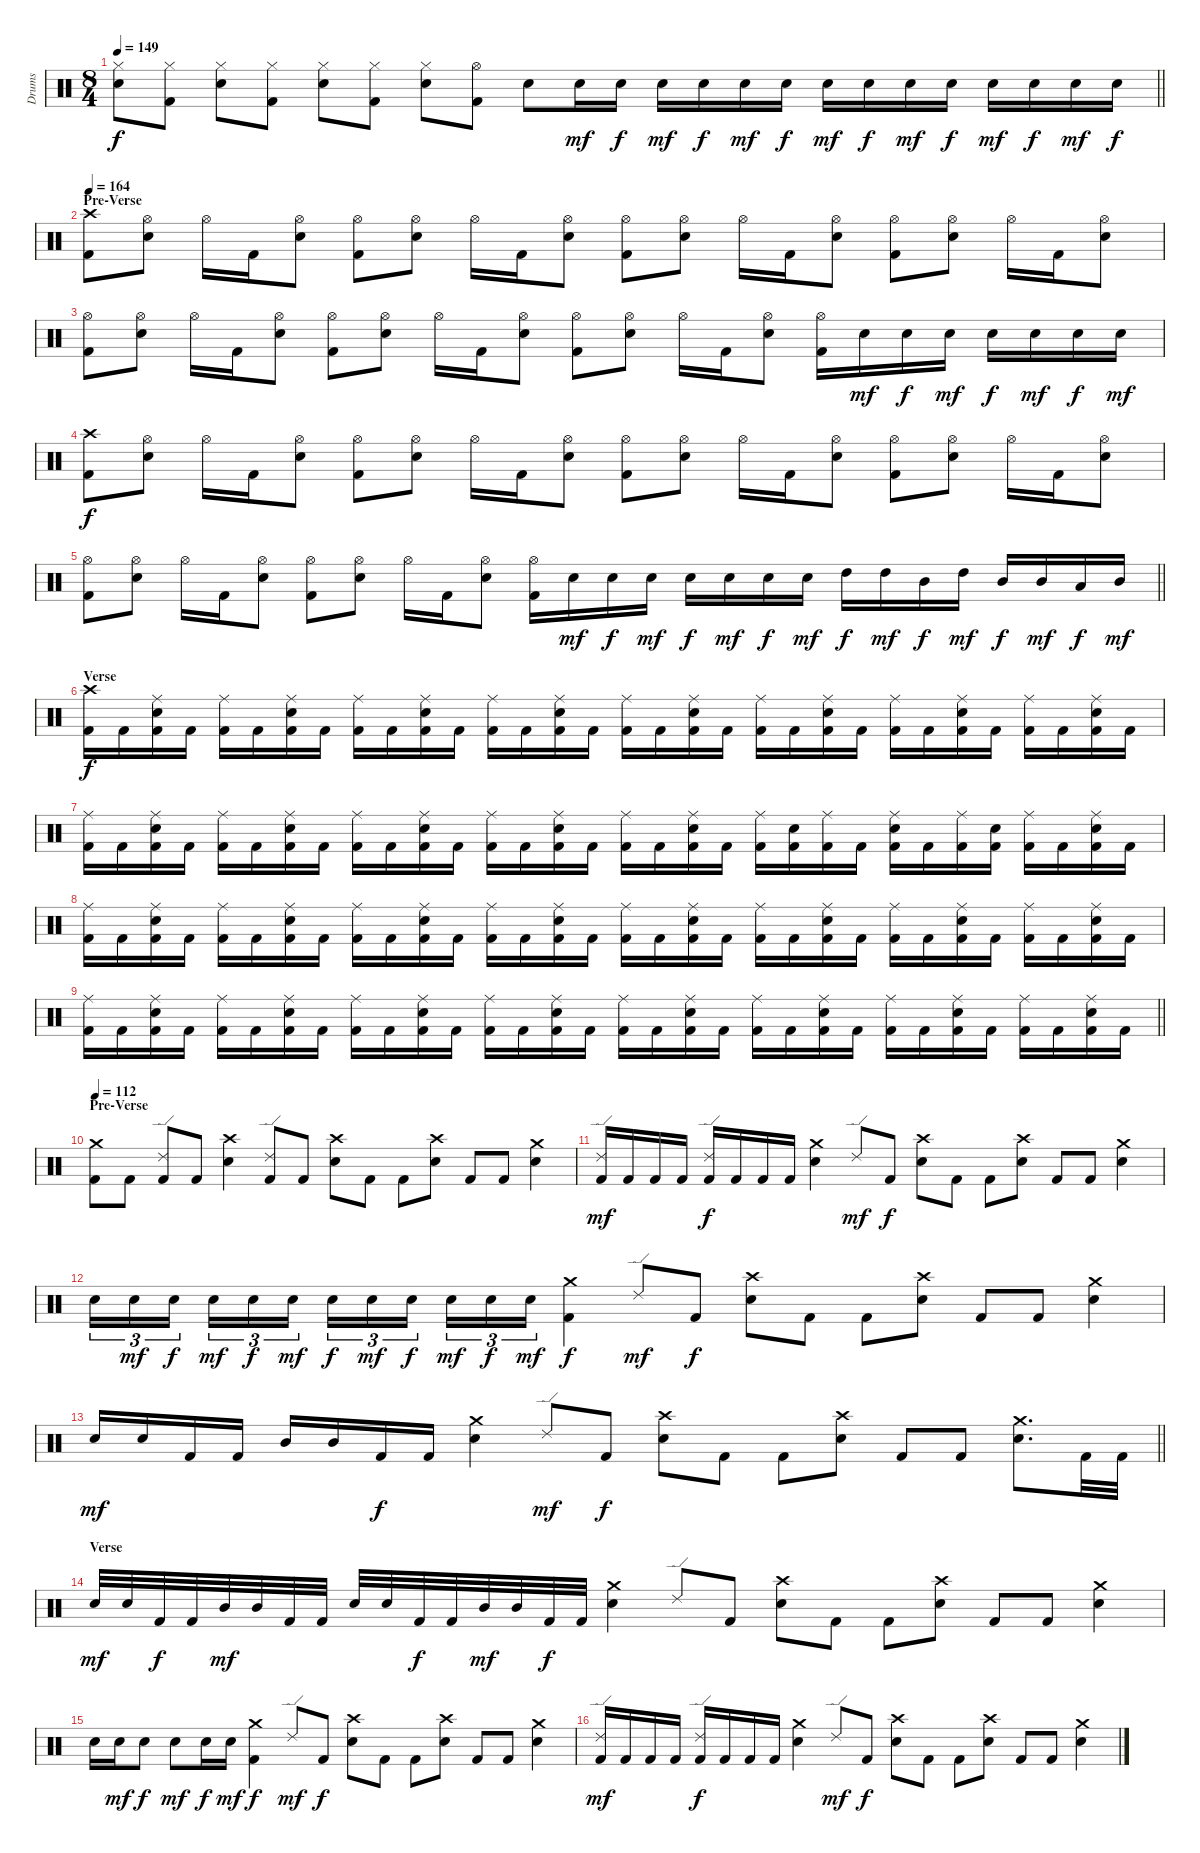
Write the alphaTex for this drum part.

\track ("Drums" "Drums") {instrument percussion}
\staff {score}
\articulation defaults
\ts (8 4)
\tempo 149
\clef neutral
\barLineRight lightlight
\ks c
("Hi-Hat (closed)" "Snare (hit) 2").8{dy f} ("Hi-Hat (closed)" "Kick (hit) 2").8 ("Hi-Hat (closed)" "Snare (hit) 2").8 ("Hi-Hat (closed)" "Kick (hit) 2").8 ("Hi-Hat (closed)" "Snare (hit) 2").8 ("Hi-Hat (closed)" "Kick (hit) 2").8 ("Hi-Hat (closed)" "Snare (hit) 2").8 ("Hi-Hat (open)" "Kick (hit) 2").8 "Snare (hit) 2".8 "Snare (hit) 2".16{dy mf} "Snare (hit) 2".16{dy f} "Snare (hit) 2".16{dy mf} "Snare (hit) 2".16{dy f} "Snare (hit) 2".16{dy mf} "Snare (hit) 2".16{dy f} "Snare (hit) 2".16{dy mf} "Snare (hit) 2".16{dy f} "Snare (hit) 2".16{dy mf} "Snare (hit) 2".16{dy f} "Snare (hit) 2".16{dy mf} "Snare (hit) 2".16{dy f} "Snare (hit) 2".16{dy mf} "Snare (hit) 2".16{dy f} |
\section ("" "Pre-Verse")
\tempo 164
("Crash high (hit)" "Kick (hit) 2").8 ("Hi-Hat (open)" "Snare (hit) 2").8 "Hi-Hat (open)".16 "Kick (hit) 2".16 ("Hi-Hat (open)" "Snare (hit) 2").8 ("Hi-Hat (open)" "Kick (hit) 2").8 ("Hi-Hat (open)" "Snare (hit) 2").8 "Hi-Hat (open)".16 "Kick (hit) 2".16 ("Hi-Hat (open)" "Snare (hit) 2").8 ("Hi-Hat (open)" "Kick (hit) 2").8 ("Hi-Hat (open)" "Snare (hit) 2").8 "Hi-Hat (open)".16 "Kick (hit) 2".16 ("Hi-Hat (open)" "Snare (hit) 2").8 ("Hi-Hat (open)" "Kick (hit) 2").8 ("Hi-Hat (open)" "Snare (hit) 2").8 "Hi-Hat (open)".16 "Kick (hit) 2".16 ("Hi-Hat (open)" "Snare (hit) 2").8 |
("Hi-Hat (open)" "Kick (hit) 2").8 ("Hi-Hat (open)" "Snare (hit) 2").8 "Hi-Hat (open)".16 "Kick (hit) 2".16 ("Hi-Hat (open)" "Snare (hit) 2").8 ("Hi-Hat (open)" "Kick (hit) 2").8 ("Hi-Hat (open)" "Snare (hit) 2").8 "Hi-Hat (open)".16 "Kick (hit) 2".16 ("Hi-Hat (open)" "Snare (hit) 2").8 ("Hi-Hat (open)" "Kick (hit) 2").8 ("Hi-Hat (open)" "Snare (hit) 2").8 "Hi-Hat (open)".16 "Kick (hit) 2".16 ("Hi-Hat (open)" "Snare (hit) 2").8 ("Hi-Hat (open)" "Kick (hit) 2").16 "Snare (hit) 2".16{dy mf} "Snare (hit) 2".16{dy f} "Snare (hit) 2".16{dy mf} "Snare (hit) 2".16{dy f} "Snare (hit) 2".16{dy mf} "Snare (hit) 2".16{dy f} "Snare (hit) 2".16{dy mf} |
("Crash high (hit)" "Kick (hit) 2").8{dy f} ("Hi-Hat (open)" "Snare (hit) 2").8 "Hi-Hat (open)".16 "Kick (hit) 2".16 ("Hi-Hat (open)" "Snare (hit) 2").8 ("Hi-Hat (open)" "Kick (hit) 2").8 ("Hi-Hat (open)" "Snare (hit) 2").8 "Hi-Hat (open)".16 "Kick (hit) 2".16 ("Hi-Hat (open)" "Snare (hit) 2").8 ("Hi-Hat (open)" "Kick (hit) 2").8 ("Hi-Hat (open)" "Snare (hit) 2").8 "Hi-Hat (open)".16 "Kick (hit) 2".16 ("Hi-Hat (open)" "Snare (hit) 2").8 ("Hi-Hat (open)" "Kick (hit) 2").8 ("Hi-Hat (open)" "Snare (hit) 2").8 "Hi-Hat (open)".16 "Kick (hit) 2".16 ("Hi-Hat (open)" "Snare (hit) 2").8 |
\barLineRight lightlight
("Hi-Hat (open)" "Kick (hit) 2").8 ("Hi-Hat (open)" "Snare (hit) 2").8 "Hi-Hat (open)".16 "Kick (hit) 2".16 ("Hi-Hat (open)" "Snare (hit) 2").8 ("Hi-Hat (open)" "Kick (hit) 2").8 ("Hi-Hat (open)" "Snare (hit) 2").8 "Hi-Hat (open)".16 "Kick (hit) 2".16 ("Hi-Hat (open)" "Snare (hit) 2").8 ("Hi-Hat (open)" "Kick (hit) 2").16 "Snare (hit) 2".16{dy mf} "Snare (hit) 2".16{dy f} "Snare (hit) 2".16{dy mf} "Snare (hit) 2".16{dy f} "Snare (hit) 2".16{dy mf} "Snare (hit) 2".16{dy f} "Snare (hit) 2".16{dy mf} "High Tom (hit)".16{dy f} "High Tom (hit)".16{dy mf} "Mid Tom (hit)".16{dy f} "High Tom (hit)".16{dy mf} "Mid Tom (hit)".16{dy f} "Mid Tom (hit)".16{dy mf} "Low Tom (hit)".16{dy f} "Mid Tom (hit)".16{dy mf} |
\section ("" "Verse")
("Crash high (hit)" "Kick (hit) 2").16{dy f} "Kick (hit) 2".16 ("Ride (middle)" "Snare (hit) 2" "Kick (hit) 2").16 "Kick (hit) 2".16 ("Ride (middle)" "Kick (hit) 2").16 "Kick (hit) 2".16 ("Ride (middle)" "Snare (hit) 2" "Kick (hit) 2").16 "Kick (hit) 2".16 ("Ride (middle)" "Kick (hit) 2").16 "Kick (hit) 2".16 ("Ride (middle)" "Snare (hit) 2" "Kick (hit) 2").16 "Kick (hit) 2".16 ("Ride (middle)" "Kick (hit) 2").16 "Kick (hit) 2".16 ("Ride (middle)" "Snare (hit) 2" "Kick (hit) 2").16 "Kick (hit) 2".16 ("Ride (middle)" "Kick (hit) 2").16 "Kick (hit) 2".16 ("Ride (middle)" "Snare (hit) 2" "Kick (hit) 2").16 "Kick (hit) 2".16 ("Ride (middle)" "Kick (hit) 2").16 "Kick (hit) 2".16 ("Ride (middle)" "Snare (hit) 2" "Kick (hit) 2").16 "Kick (hit) 2".16 ("Ride (middle)" "Kick (hit) 2").16 "Kick (hit) 2".16 ("Ride (middle)" "Snare (hit) 2" "Kick (hit) 2").16 "Kick (hit) 2".16 ("Ride (middle)" "Kick (hit) 2").16 "Kick (hit) 2".16 ("Ride (middle)" "Snare (hit) 2" "Kick (hit) 2").16 "Kick (hit) 2".16 |
("Ride (middle)" "Kick (hit) 2").16 "Kick (hit) 2".16 ("Ride (middle)" "Snare (hit) 2" "Kick (hit) 2").16 "Kick (hit) 2".16 ("Ride (middle)" "Kick (hit) 2").16 "Kick (hit) 2".16 ("Ride (middle)" "Snare (hit) 2" "Kick (hit) 2").16 "Kick (hit) 2".16 ("Ride (middle)" "Kick (hit) 2").16 "Kick (hit) 2".16 ("Ride (middle)" "Snare (hit) 2" "Kick (hit) 2").16 "Kick (hit) 2".16 ("Ride (middle)" "Kick (hit) 2").16 "Kick (hit) 2".16 ("Ride (middle)" "Snare (hit) 2" "Kick (hit) 2").16 "Kick (hit) 2".16 ("Ride (middle)" "Kick (hit) 2").16 "Kick (hit) 2".16 ("Ride (middle)" "Snare (hit) 2" "Kick (hit) 2").16 "Kick (hit) 2".16 ("Ride (middle)" "Kick (hit) 2").16 ("Snare (hit) 2" "Kick (hit) 2").16 ("Ride (middle)" "Kick (hit) 2").16 "Kick (hit) 2".16 ("Ride (middle)" "Snare (hit) 2" "Kick (hit) 2").16 "Kick (hit) 2".16 ("Ride (middle)" "Kick (hit) 2").16 ("Snare (hit) 2" "Kick (hit) 2").16 ("Ride (middle)" "Kick (hit) 2").16 "Kick (hit) 2".16 ("Ride (middle)" "Snare (hit) 2" "Kick (hit) 2").16 "Kick (hit) 2".16 |
("Ride (middle)" "Kick (hit) 2").16 "Kick (hit) 2".16 ("Ride (middle)" "Snare (hit) 2" "Kick (hit) 2").16 "Kick (hit) 2".16 ("Ride (middle)" "Kick (hit) 2").16 "Kick (hit) 2".16 ("Ride (middle)" "Snare (hit) 2" "Kick (hit) 2").16 "Kick (hit) 2".16 ("Ride (middle)" "Kick (hit) 2").16 "Kick (hit) 2".16 ("Ride (middle)" "Snare (hit) 2" "Kick (hit) 2").16 "Kick (hit) 2".16 ("Ride (middle)" "Kick (hit) 2").16 "Kick (hit) 2".16 ("Ride (middle)" "Snare (hit) 2" "Kick (hit) 2").16 "Kick (hit) 2".16 ("Ride (middle)" "Kick (hit) 2").16 "Kick (hit) 2".16 ("Ride (middle)" "Snare (hit) 2" "Kick (hit) 2").16 "Kick (hit) 2".16 ("Ride (middle)" "Kick (hit) 2").16 "Kick (hit) 2".16 ("Ride (middle)" "Snare (hit) 2" "Kick (hit) 2").16 "Kick (hit) 2".16 ("Ride (middle)" "Kick (hit) 2").16 "Kick (hit) 2".16 ("Ride (middle)" "Snare (hit) 2" "Kick (hit) 2").16 "Kick (hit) 2".16 ("Ride (middle)" "Kick (hit) 2").16 "Kick (hit) 2".16 ("Ride (middle)" "Snare (hit) 2" "Kick (hit) 2").16 "Kick (hit) 2".16 |
\barLineRight lightlight
("Ride (middle)" "Kick (hit) 2").16 "Kick (hit) 2".16 ("Ride (middle)" "Snare (hit) 2" "Kick (hit) 2").16 "Kick (hit) 2".16 ("Ride (middle)" "Kick (hit) 2").16 "Kick (hit) 2".16 ("Ride (middle)" "Snare (hit) 2" "Kick (hit) 2").16 "Kick (hit) 2".16 ("Ride (middle)" "Kick (hit) 2").16 "Kick (hit) 2".16 ("Ride (middle)" "Snare (hit) 2" "Kick (hit) 2").16 "Kick (hit) 2".16 ("Ride (middle)" "Kick (hit) 2").16 "Kick (hit) 2".16 ("Ride (middle)" "Snare (hit) 2" "Kick (hit) 2").16 "Kick (hit) 2".16 ("Ride (middle)" "Kick (hit) 2").16 "Kick (hit) 2".16 ("Ride (middle)" "Snare (hit) 2" "Kick (hit) 2").16 "Kick (hit) 2".16 ("Ride (middle)" "Kick (hit) 2").16 "Kick (hit) 2".16 ("Ride (middle)" "Snare (hit) 2" "Kick (hit) 2").16 "Kick (hit) 2".16 ("Ride (middle)" "Kick (hit) 2").16 "Kick (hit) 2".16 ("Ride (middle)" "Snare (hit) 2" "Kick (hit) 2").16 "Kick (hit) 2".16 ("Ride (middle)" "Kick (hit) 2").16 "Kick (hit) 2".16 ("Ride (middle)" "Snare (hit) 2" "Kick (hit) 2").16 "Kick (hit) 2".16 |
\section ("" "Pre-Verse")
\tempo 112
("Crash medium (hit)" "Kick (hit) 2").8 "Kick (hit) 2".8 ("Ride (edge) 2" "Kick (hit) 2").8 "Kick (hit) 2".8 ("Crash high (hit)" "Snare (hit) 2").4 ("Ride (edge) 2" "Kick (hit) 2").8 "Kick (hit) 2".8 ("Crash high (hit)" "Snare (hit) 2").8 "Kick (hit) 2".8 "Kick (hit) 2".8 ("Crash high (hit)" "Snare (hit) 2").8 "Kick (hit) 2".8 "Kick (hit) 2".8 ("Crash medium (hit)" "Snare (hit) 2").4 |
("Ride (edge) 2" "Kick (hit) 2").16{dy mf} "Kick (hit) 2".16 "Kick (hit) 2".16 "Kick (hit) 2".16 ("Ride (edge) 2" "Kick (hit) 2").16{dy f} "Kick (hit) 2".16 "Kick (hit) 2".16 "Kick (hit) 2".16 ("Crash medium (hit)" "Snare (hit) 2").4 "Ride (edge) 2".8{dy mf} "Kick (hit) 2".8{dy f} ("Crash high (hit)" "Snare (hit) 2").8 "Kick (hit) 2".8 "Kick (hit) 2".8 ("Crash high (hit)" "Snare (hit) 2").8 "Kick (hit) 2".8 "Kick (hit) 2".8 ("Crash medium (hit)" "Snare (hit) 2").4 |
"Snare (hit) 2".16{tu (3 2)} "Snare (hit) 2".16{tu (3 2) dy mf} "Snare (hit) 2".16{tu (3 2) dy f beam splitsecondary} "Snare (hit) 2".16{tu (3 2) dy mf} "Snare (hit) 2".16{tu (3 2) dy f} "Snare (hit) 2".16{tu (3 2) dy mf} "Snare (hit) 2".16{tu (3 2) dy f} "Snare (hit) 2".16{tu (3 2) dy mf} "Snare (hit) 2".16{tu (3 2) dy f beam splitsecondary} "Snare (hit) 2".16{tu (3 2) dy mf} "Snare (hit) 2".16{tu (3 2) dy f} "Snare (hit) 2".16{tu (3 2) dy mf} ("Crash medium (hit)" "Kick (hit) 2").4{dy f} "Ride (edge) 2".8{dy mf} "Kick (hit) 2".8{dy f} ("Crash high (hit)" "Snare (hit) 2").8 "Kick (hit) 2".8 "Kick (hit) 2".8 ("Crash high (hit)" "Snare (hit) 2").8 "Kick (hit) 2".8 "Kick (hit) 2".8 ("Crash medium (hit)" "Snare (hit) 2").4 |
\barLineRight lightlight "Snare (hit) 2".16{dy mf} "Snare (hit) 2".16 "Kick (hit) 2".16 "Kick (hit) 2".16 "Mid Tom (hit)".16 "Mid Tom (hit)".16 "Kick (hit) 2".16{dy f} "Kick (hit) 2".16
("Crash medium (hit)" "Snare (hit) 2").4 "Ride (edge) 2".8{dy mf} "Kick (hit) 2".8{dy f} ("Crash high (hit)" "Snare (hit) 2").8 "Kick (hit) 2".8 "Kick (hit) 2".8 ("Crash high (hit)" "Snare (hit) 2").8 "Kick (hit) 2".8 "Kick (hit) 2".8 ("Crash medium (hit)" "Snare (hit) 2").8{d} "Kick (hit) 2".32 "Kick (hit) 2".32 |
\section ("" "Verse")
"Snare (hit) 2".32{dy mf} "Snare (hit) 2".32 "Kick (hit) 2".32{dy f} "Kick (hit) 2".32 "Mid Tom (hit)".32{dy mf} "Mid Tom (hit)".32 "Kick (hit) 2".32 "Kick (hit) 2".32 "Snare (hit) 2".32 "Snare (hit) 2".32 "Kick (hit) 2".32{dy f} "Kick (hit) 2".32 "Mid Tom (hit)".32{dy mf} "Mid Tom (hit)".32 "Kick (hit) 2".32{dy f} "Kick (hit) 2".32 ("Crash medium (hit)" "Snare (hit) 2").4 "Ride (edge) 2".8 "Kick (hit) 2".8 ("Crash high (hit)" "Snare (hit) 2").8 "Kick (hit) 2".8 "Kick (hit) 2".8 ("Crash high (hit)" "Snare (hit) 2").8 "Kick (hit) 2".8 "Kick (hit) 2".8 ("Crash medium (hit)" "Snare (hit) 2").4 |
"Snare (hit) 2".16 "Snare (hit) 2".16{dy mf} "Snare (hit) 2".8{dy f} "Snare (hit) 2".8{dy mf} "Snare (hit) 2".16{dy f} "Snare (hit) 2".16{dy mf} ("Crash medium (hit)" "Kick (hit) 2").4{dy f} "Ride (edge) 2".8{dy mf} "Kick (hit) 2".8{dy f} ("Crash high (hit)" "Snare (hit) 2").8 "Kick (hit) 2".8 "Kick (hit) 2".8 ("Crash high (hit)" "Snare (hit) 2").8 "Kick (hit) 2".8 "Kick (hit) 2".8 ("Crash medium (hit)" "Snare (hit) 2").4 |
("Ride (edge) 2" "Kick (hit) 2").16{dy mf} "Kick (hit) 2".16 "Kick (hit) 2".16 "Kick (hit) 2".16 ("Ride (edge) 2" "Kick (hit) 2").16{dy f} "Kick (hit) 2".16 "Kick (hit) 2".16 "Kick (hit) 2".16 ("Crash medium (hit)" "Snare (hit) 2").4 "Ride (edge) 2".8{dy mf} "Kick (hit) 2".8{dy f} ("Crash high (hit)" "Snare (hit) 2").8 "Kick (hit) 2".8 "Kick (hit) 2".8 ("Crash high (hit)" "Snare (hit) 2").8 "Kick (hit) 2".8 "Kick (hit) 2".8 ("Crash medium (hit)" "Snare (hit) 2").4
